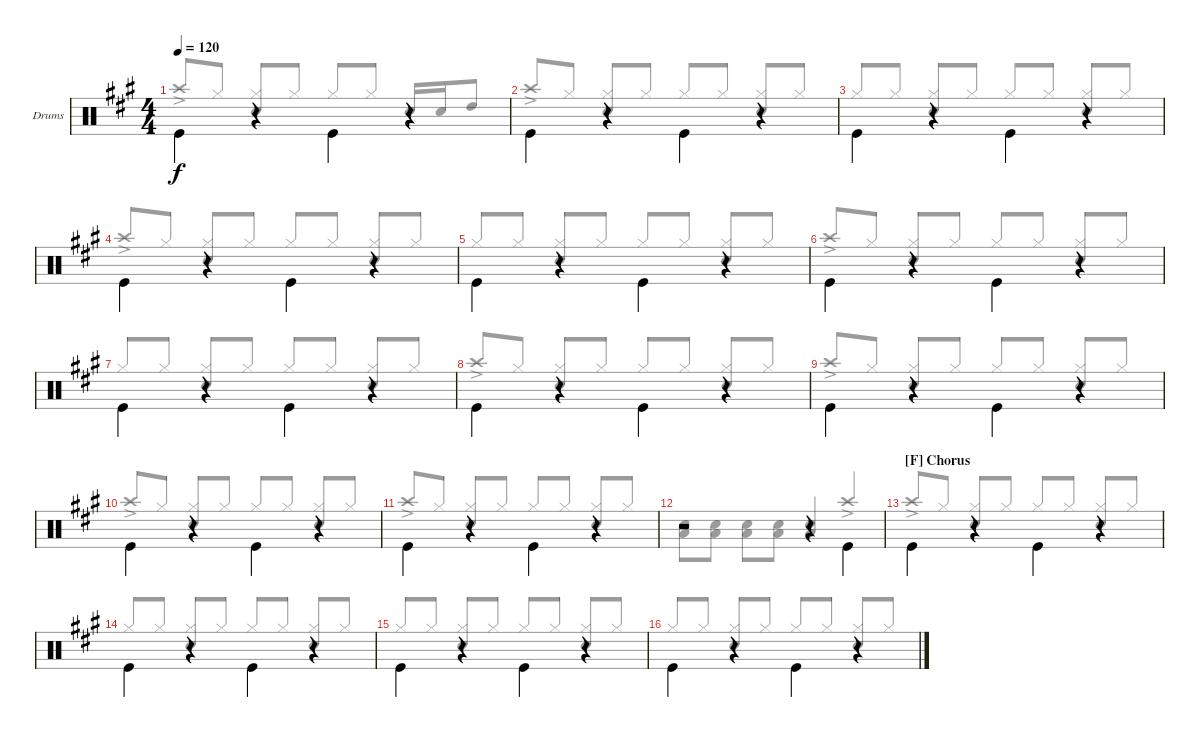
\bracketExtendMode groupsimilarinstruments
\firstSystemTrackNameOrientation horizontal
\otherSystemsTrackNameOrientation horizontal
\track ("Drum" "Drums") {instrument percussion}
\staff {score}
\articulation defaults
\voice
\ts (4 4)
\tempo 120
\clef neutral
\scale
1.05801
\ks a "Kick (hit)".4{dy f beam invert}
r.4 "Kick (hit)".4{beam invert} r.4 |
\scale
0.941992 "Kick (hit)".4{beam invert} r.4 "Kick (hit)".4{beam invert} r.4 |
\scale
1.05801 "Kick (hit)".4{beam invert} r.4 "Kick (hit)".4{beam invert} r.4 |
\scale
0.941992 "Kick (hit)".4{beam invert} r.4 "Kick (hit)".4{beam invert} r.4 |
\scale
1.05801 "Kick (hit)".4{beam invert} r.4 "Kick (hit)".4{beam invert} r.4 |
\scale
0.941992 "Kick (hit)".4{beam invert} r.4 "Kick (hit)".4{beam invert} r.4 |
\scale
1.05801 "Kick (hit)".4{beam invert} r.4 "Kick (hit)".4{beam invert} r.4 |
\scale
0.941992 "Kick (hit)".4{beam invert} r.4 "Kick (hit)".4{beam invert} r.4 |
\scale
1.05801 "Kick (hit)".4{beam invert} r.4 "Kick (hit)".4{beam invert} r.4 |
\scale
0.941992 "Kick (hit)".4{beam invert} r.4 "Kick (hit)".4{beam invert} r.4 |
\scale
1.05801 "Kick (hit)".4{beam invert} r.4 "Kick (hit)".4{beam invert} r.4 |
\scale
0.941992 r.2 r.4 "Kick (hit)".4{beam invert} |
\section ("F" "Chorus")
\scale
1.05801 "Kick (hit)".4{beam invert} r.4 "Kick (hit)".4{beam invert} r.4 |
\scale
0.941992 "Kick (hit)".4{beam invert} r.4 "Kick (hit)".4{beam invert} r.4 |
\scale
1.05801 "Kick (hit)".4{beam invert} r.4 "Kick (hit)".4{beam invert} r.4 |
\scale
0.941992 "Kick (hit)".4{beam invert} r.4 "Kick (hit)".4{beam invert} r.4
\voice
\clef neutral
\ottava regular
\simile none
\scale
1.05801
\ks a "Crash high (hit)"{ac}.8{dy f beam invert} "Hi-Hat (closed)".8
("Hi-Hat (closed)" "Snare (hit) 2").8{beam invert} "Hi-Hat (closed)".8 "Hi-Hat (closed)".8{beam invert} "Hi-Hat (closed)".8 "Snare (hit) 2".16{beam invert} "Snare (hit) 2".16 "High Tom (hit)".8 |
\scale
0.941992 "Crash high (hit)"{ac}.8{beam invert} "Hi-Hat (closed)".8 ("Hi-Hat (closed)" "Snare (hit) 2").8{beam invert} "Hi-Hat (closed)".8 "Hi-Hat (closed)".8{beam invert} "Hi-Hat (closed)".8 ("Hi-Hat (closed)" "Snare (hit) 2").8{beam invert} "Hi-Hat (closed)".8 |
\scale
1.05801 "Hi-Hat (closed)".8{beam invert} "Hi-Hat (closed)".8 ("Hi-Hat (closed)" "Snare (hit) 2").8{beam invert} "Hi-Hat (closed)".8 "Hi-Hat (closed)".8{beam invert} "Hi-Hat (closed)".8 ("Hi-Hat (closed)" "Snare (hit) 2").8{beam invert} "Hi-Hat (closed)".8 |
\scale
0.941992 "Crash high (hit)"{ac}.8{beam invert} "Hi-Hat (closed)".8 ("Hi-Hat (closed)" "Snare (hit) 2").8{beam invert} "Hi-Hat (closed)".8 "Hi-Hat (closed)".8{beam invert} "Hi-Hat (closed)".8 ("Hi-Hat (closed)" "Snare (hit) 2").8{beam invert} "Hi-Hat (closed)".8 |
\scale
1.05801 "Hi-Hat (closed)".8{beam invert} "Hi-Hat (closed)".8 ("Hi-Hat (closed)" "Snare (hit) 2").8{beam invert} "Hi-Hat (closed)".8 "Hi-Hat (closed)".8{beam invert} "Hi-Hat (closed)".8 ("Hi-Hat (closed)" "Snare (hit) 2").8{beam invert} "Hi-Hat (closed)".8 |
\scale
0.941992 "Crash high (hit)"{ac}.8{beam invert} "Hi-Hat (closed)".8 ("Hi-Hat (closed)" "Snare (hit) 2").8{beam invert} "Hi-Hat (closed)".8 "Hi-Hat (closed)".8{beam invert} "Hi-Hat (closed)".8 ("Hi-Hat (closed)" "Snare (hit) 2").8{beam invert} "Hi-Hat (closed)".8 |
\scale
1.05801 "Hi-Hat (closed)".8{beam invert} "Hi-Hat (closed)".8 ("Hi-Hat (closed)" "Snare (hit) 2").8{beam invert} "Hi-Hat (closed)".8 "Hi-Hat (closed)".8{beam invert} "Hi-Hat (closed)".8 ("Hi-Hat (closed)" "Snare (hit) 2").8{beam invert} "Hi-Hat (closed)".8 |
\scale
0.941992 "Crash high (hit)"{ac}.8{beam invert} "Hi-Hat (closed)".8 ("Hi-Hat (closed)" "Snare (hit) 2").8{beam invert} "Hi-Hat (closed)".8 "Hi-Hat (closed)".8{beam invert} "Hi-Hat (closed)".8 ("Hi-Hat (closed)" "Snare (hit) 2").8{beam invert} "Hi-Hat (closed)".8 |
\scale
1.05801 "Crash high (hit)"{ac}.8{beam invert} "Hi-Hat (closed)".8 ("Hi-Hat (closed)" "Snare (hit) 2").8{beam invert} "Hi-Hat (closed)".8 "Hi-Hat (closed)".8{beam invert} "Hi-Hat (closed)".8 ("Hi-Hat (closed)" "Snare (hit) 2").8{beam invert} "Hi-Hat (closed)".8 |
\scale
0.941992 "Crash high (hit)"{ac}.8{beam invert} "Hi-Hat (closed)".8 ("Hi-Hat (closed)" "Snare (hit) 2").8{beam invert} "Hi-Hat (closed)".8 "Hi-Hat (closed)".8{beam invert} "Hi-Hat (closed)".8 ("Hi-Hat (closed)" "Snare (hit) 2").8{beam invert} "Hi-Hat (closed)".8 |
\scale
1.05801 "Crash high (hit)"{ac}.8{beam invert} "Hi-Hat (closed)".8 ("Hi-Hat (closed)" "Snare (hit) 2").8{beam invert} "Hi-Hat (closed)".8 "Hi-Hat (closed)".8{beam invert} "Hi-Hat (closed)".8 ("Hi-Hat (closed)" "Snare (hit) 2").8{beam invert} "Hi-Hat (closed)".8 |
\scale
0.941992 ("Low Tom (hit)" "Snare (hit) 2").8 ("Low Tom (hit)" "Snare (hit) 2").8 ("Low Tom (hit)" "Snare (hit) 2").8 ("Low Tom (hit)" "Snare (hit) 2").8 ("Low Tom (hit)" "Snare (hit) 2").4 "Crash high (hit)"{ac}.4{beam invert} |
\scale
1.05801 "Crash high (hit)"{ac}.8{beam invert} "Hi-Hat (closed)".8 ("Hi-Hat (closed)" "Snare (hit) 2").8{beam invert} "Hi-Hat (closed)".8 "Hi-Hat (closed)".8{beam invert} "Hi-Hat (closed)".8 ("Hi-Hat (closed)" "Snare (hit) 2").8{beam invert} "Hi-Hat (closed)".8 |
\scale
0.941992 "Hi-Hat (closed)".8{beam invert} "Hi-Hat (closed)".8 ("Hi-Hat (closed)" "Snare (hit) 2").8{beam invert} "Hi-Hat (closed)".8 "Hi-Hat (closed)".8{beam invert} "Hi-Hat (closed)".8 ("Hi-Hat (closed)" "Snare (hit) 2").8{beam invert} "Hi-Hat (closed)".8 |
\scale
1.05801 "Hi-Hat (closed)".8{beam invert} "Hi-Hat (closed)".8 ("Hi-Hat (closed)" "Snare (hit) 2").8{beam invert} "Hi-Hat (closed)".8 "Hi-Hat (closed)".8{beam invert} "Hi-Hat (closed)".8 ("Hi-Hat (closed)" "Snare (hit) 2").8{beam invert} "Hi-Hat (closed)".8 |
\scale
0.941992 "Hi-Hat (closed)".8{beam invert} "Hi-Hat (closed)".8 ("Hi-Hat (closed)" "Snare (hit) 2").8{beam invert} "Hi-Hat (closed)".8 "Hi-Hat (closed)".8{beam invert} "Hi-Hat (closed)".8 ("Hi-Hat (closed)" "Snare (hit) 2").8{beam invert} "Hi-Hat (closed)".8
